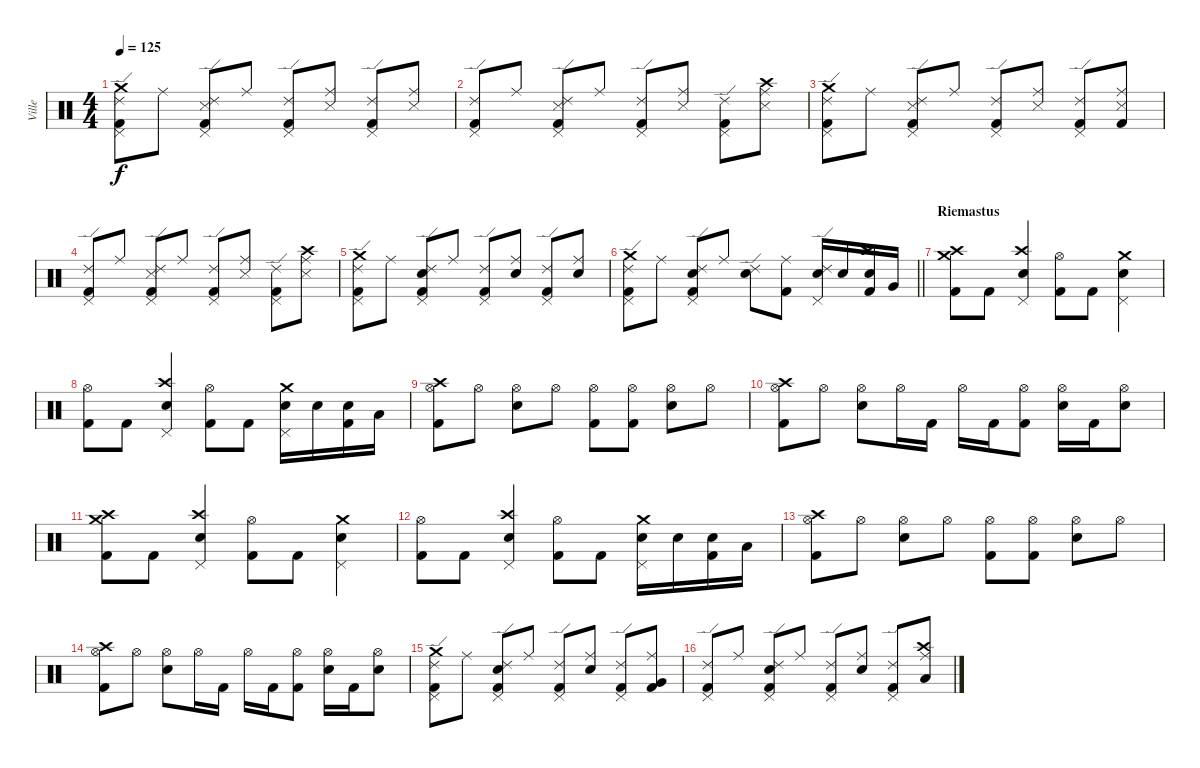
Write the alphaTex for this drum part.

\track ("Ville" "Ville") {instrument percussion}
\staff {score}
\articulation defaults
\ts (4 4)
\tempo 125
\clef neutral
\ks c
("Crash medium (hit)" "Pedal Hi-Hat (hit)" "Ride (edge) 2" "Kick (hit) 2").8{dy f} "Ride (middle)".8 ("Snare (side stick) 3" "Pedal Hi-Hat (hit)" "Ride (edge) 2" "Kick (hit) 2").8 "Ride (middle)".8 ("Pedal Hi-Hat (hit)" "Ride (edge) 2" "Kick (hit) 2").8 ("Snare (side stick) 3" "Ride (middle)").8 ("Pedal Hi-Hat (hit)" "Ride (edge) 2" "Kick (hit) 2").8 ("Snare (side stick) 3" "Ride (middle)").8 |
("Pedal Hi-Hat (hit)" "Ride (edge) 2" "Kick (hit) 2").8 "Ride (middle)".8 ("Snare (side stick) 3" "Pedal Hi-Hat (hit)" "Ride (edge) 2" "Kick (hit) 2").8 "Ride (middle)".8 ("Pedal Hi-Hat (hit)" "Ride (edge) 2" "Kick (hit) 2").8 ("Snare (side stick) 3" "Ride (middle)").8 ("Pedal Hi-Hat (hit)" "Ride (edge) 2" "Kick (hit) 2").8 ("Crash high (hit)" "Snare (side stick) 3" "Ride (middle)").8 |
("Crash medium (hit)" "Pedal Hi-Hat (hit)" "Ride (edge) 2" "Kick (hit) 2").8 "Ride (middle)".8 ("Snare (side stick) 3" "Pedal Hi-Hat (hit)" "Ride (edge) 2" "Kick (hit) 2").8 "Ride (middle)".8 ("Pedal Hi-Hat (hit)" "Ride (edge) 2" "Kick (hit) 2").8 ("Snare (side stick) 3" "Ride (middle)").8 ("Pedal Hi-Hat (hit)" "Ride (edge) 2" "Kick (hit) 2").8 ("Snare (side stick) 3" "Ride (middle)" "Kick (hit) 2").8 |
("Pedal Hi-Hat (hit)" "Ride (edge) 2" "Kick (hit) 2").8 "Ride (middle)".8 ("Snare (side stick) 3" "Pedal Hi-Hat (hit)" "Ride (edge) 2" "Kick (hit) 2").8 "Ride (middle)".8 ("Pedal Hi-Hat (hit)" "Ride (edge) 2" "Kick (hit) 2").8 ("Snare (side stick) 3" "Ride (middle)").8 ("Pedal Hi-Hat (hit)" "Ride (edge) 2" "Kick (hit) 2").8 ("Crash high (hit)" "Snare (side stick) 3" "Ride (middle)").8 |
("Crash medium (hit)" "Pedal Hi-Hat (hit)" "Ride (edge) 2" "Kick (hit) 2").8 "Ride (middle)".8 ("Snare (hit) 2" "Pedal Hi-Hat (hit)" "Ride (edge) 2" "Kick (hit) 2").8 "Ride (middle)".8 ("Pedal Hi-Hat (hit)" "Ride (edge) 2" "Kick (hit) 2").8 ("Snare (hit) 2" "Ride (middle)").8 ("Pedal Hi-Hat (hit)" "Ride (edge) 2" "Kick (hit) 2").8 ("Snare (hit) 2" "Ride (middle)").8 |
\barLineRight lightlight
("Crash medium (hit)" "Pedal Hi-Hat (hit)" "Ride (edge) 2" "Kick (hit) 2").8 "Ride (middle)".8 ("Snare (hit) 2" "Pedal Hi-Hat (hit)" "Ride (edge) 2" "Kick (hit) 2").8 "Ride (middle)".8 ("Snare (hit) 2" "Ride (edge) 2").8 ("Kick (hit) 2" "Ride (middle)").8 ("Snare (hit) 2" "Pedal Hi-Hat (hit)" "Ride (edge) 2").16 "Snare (hit) 2".16 ("Snare (hit) 2" "Crash high (hit)" "Kick (hit) 2").16 "Very Low Tom (hit)".16 |
\section ("" "Riemastus")
("Crash medium (hit)" "Crash high (hit)" "Kick (hit) 2").8 "Kick (hit) 2".8 ("Crash high (hit)" "Pedal Hi-Hat (hit)" "Snare (hit) 2").4 ("Hi-Hat (open)" "Kick (hit) 2").8 "Kick (hit) 2".8 ("Crash medium (hit)" "Pedal Hi-Hat (hit)" "Snare (hit) 2").4 |
("Hi-Hat (open)" "Kick (hit) 2").8 "Kick (hit) 2".8 ("Crash high (hit)" "Pedal Hi-Hat (hit)" "Snare (hit) 2").4 ("Hi-Hat (open)" "Kick (hit) 2").8 "Kick (hit) 2".8 ("Crash medium (hit)" "Pedal Hi-Hat (hit)" "Snare (hit) 2").16 "Snare (hit) 2".16 ("Snare (hit) 2" "Kick (hit) 2").16 "Low Tom (hit)".16 |
("Crash high (hit)" "Hi-Hat (open)" "Kick (hit) 2").8 "Hi-Hat (open)".8 ("Hi-Hat (open)" "Snare (hit) 2").8 "Hi-Hat (open)".8 ("Hi-Hat (open)" "Kick (hit) 2").8 ("Hi-Hat (open)" "Kick (hit) 2").8 ("Hi-Hat (open)" "Snare (hit) 2").8 "Hi-Hat (open)".8 |
("Crash high (hit)" "Hi-Hat (open)" "Kick (hit) 2").8 "Hi-Hat (open)".8 ("Hi-Hat (open)" "Snare (hit) 2").8 "Hi-Hat (open)".16 "Kick (hit) 2".16 "Hi-Hat (open)".16 "Kick (hit) 2".16 ("Hi-Hat (open)" "Kick (hit) 2").8 ("Hi-Hat (open)" "Snare (hit) 2").16 "Kick (hit) 2".16 ("Hi-Hat (open)" "Snare (hit) 2").8 |
("Crash medium (hit)" "Crash high (hit)" "Kick (hit) 2").8 "Kick (hit) 2".8 ("Crash high (hit)" "Pedal Hi-Hat (hit)" "Snare (hit) 2").4 ("Hi-Hat (open)" "Kick (hit) 2").8 "Kick (hit) 2".8 ("Crash medium (hit)" "Pedal Hi-Hat (hit)" "Snare (hit) 2").4 |
("Hi-Hat (open)" "Kick (hit) 2").8 "Kick (hit) 2".8 ("Crash high (hit)" "Pedal Hi-Hat (hit)" "Snare (hit) 2").4 ("Hi-Hat (open)" "Kick (hit) 2").8 "Kick (hit) 2".8 ("Crash medium (hit)" "Pedal Hi-Hat (hit)" "Snare (hit) 2").16 "Snare (hit) 2".16 ("Snare (hit) 2" "Kick (hit) 2").16 "Low Tom (hit)".16 |
("Crash high (hit)" "Hi-Hat (open)" "Kick (hit) 2").8 "Hi-Hat (open)".8 ("Hi-Hat (open)" "Snare (hit) 2").8 "Hi-Hat (open)".8 ("Hi-Hat (open)" "Kick (hit) 2").8 ("Hi-Hat (open)" "Kick (hit) 2").8 ("Hi-Hat (open)" "Snare (hit) 2").8 "Hi-Hat (open)".8 |
("Crash high (hit)" "Hi-Hat (open)" "Kick (hit) 2").8 "Hi-Hat (open)".8 ("Hi-Hat (open)" "Snare (hit) 2").8 "Hi-Hat (open)".16 "Kick (hit) 2".16 "Hi-Hat (open)".16 "Kick (hit) 2".16 ("Hi-Hat (open)" "Kick (hit) 2").8 ("Hi-Hat (open)" "Snare (hit) 2").16 "Kick (hit) 2".16 ("Hi-Hat (open)" "Snare (hit) 2").8 |
("Crash medium (hit)" "Pedal Hi-Hat (hit)" "Ride (edge) 2" "Kick (hit) 2").8 "Ride (middle)".8 ("Snare (hit) 2" "Pedal Hi-Hat (hit)" "Ride (edge) 2" "Kick (hit) 2").8 "Ride (middle)".8 ("Pedal Hi-Hat (hit)" "Ride (edge) 2" "Kick (hit) 2").8 ("Snare (hit) 2" "Ride (middle)").8 ("Pedal Hi-Hat (hit)" "Ride (edge) 2" "Kick (hit) 2").8 ("Very Low Tom (hit)" "Ride (middle)" "Kick (hit) 2").8 |
("Pedal Hi-Hat (hit)" "Ride (edge) 2" "Kick (hit) 2").8 "Ride (middle)".8 ("Snare (hit) 2" "Pedal Hi-Hat (hit)" "Ride (edge) 2" "Kick (hit) 2").8 "Ride (middle)".8 ("Pedal Hi-Hat (hit)" "Ride (edge) 2" "Kick (hit) 2").8 ("Snare (hit) 2" "Ride (middle)").8 ("Pedal Hi-Hat (hit)" "Ride (edge) 2" "Kick (hit) 2").8 ("Crash high (hit)" "Low Floor Tom (hit)" "Ride (middle)").8
